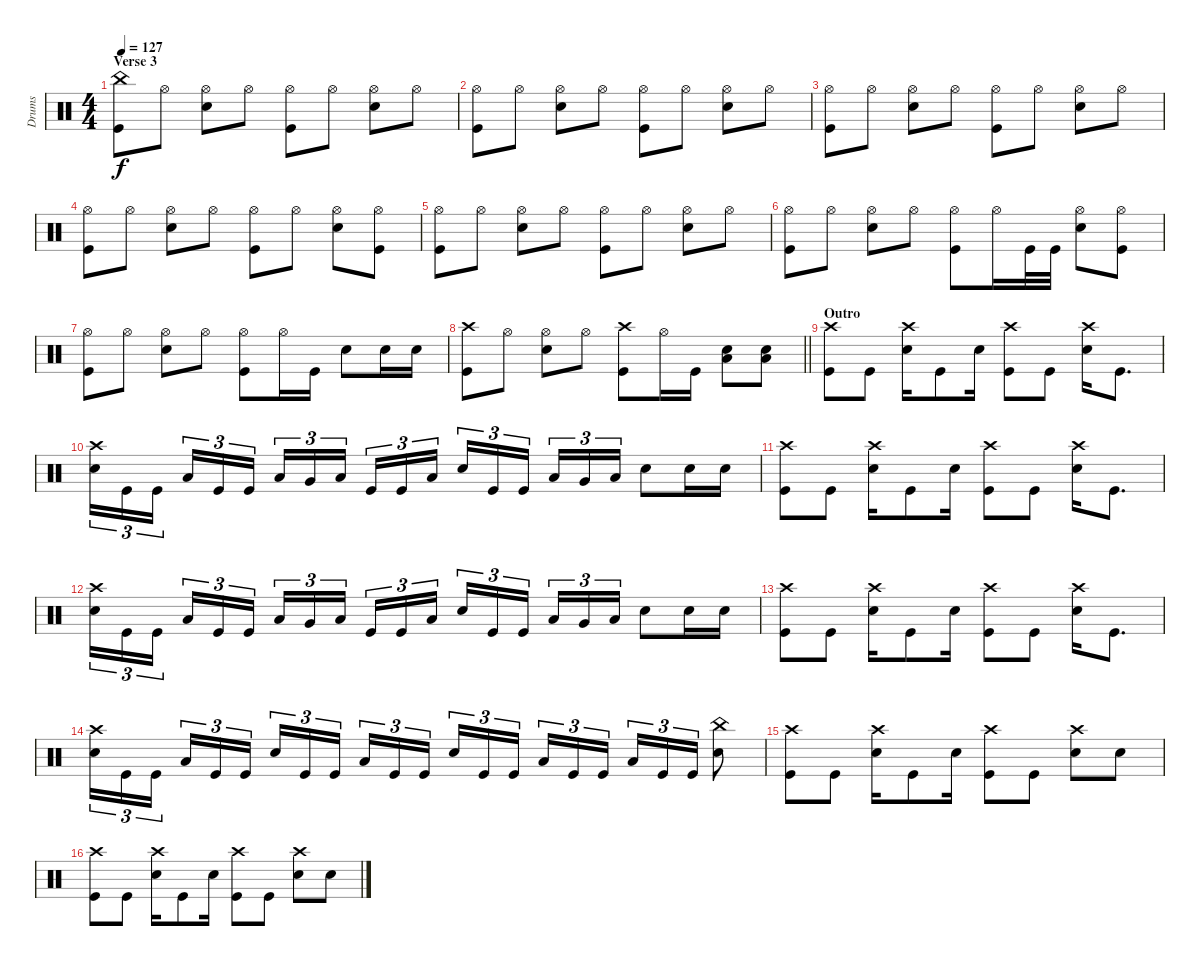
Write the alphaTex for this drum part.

\track ("Drums" "Drums") {instrument percussion}
\staff {score}
\articulation defaults
\ts (4 4)
\section ("" "Verse 3")
\tempo 127
\clef neutral
\ks c
("China (hit)" "Kick (hit)").8{dy f} "Hi-Hat (open)".8 ("Snare (hit) 2" "Hi-Hat (open)").8 "Hi-Hat (open)".8 ("Kick (hit)" "Hi-Hat (open)").8 "Hi-Hat (open)".8 ("Snare (hit) 2" "Hi-Hat (open)").8 "Hi-Hat (open)".8 |
("Kick (hit)" "Hi-Hat (open)").8 "Hi-Hat (open)".8 ("Snare (hit) 2" "Hi-Hat (open)").8 "Hi-Hat (open)".8 ("Kick (hit)" "Hi-Hat (open)").8 "Hi-Hat (open)".8 ("Snare (hit) 2" "Hi-Hat (open)").8 "Hi-Hat (open)".8 |
("Kick (hit)" "Hi-Hat (open)").8 "Hi-Hat (open)".8 ("Snare (hit) 2" "Hi-Hat (open)").8 "Hi-Hat (open)".8 ("Kick (hit)" "Hi-Hat (open)").8 "Hi-Hat (open)".8 ("Snare (hit) 2" "Hi-Hat (open)").8 "Hi-Hat (open)".8 |
("Kick (hit)" "Hi-Hat (open)").8 "Hi-Hat (open)".8 ("Snare (hit) 2" "Hi-Hat (open)").8 "Hi-Hat (open)".8 ("Kick (hit)" "Hi-Hat (open)").8 "Hi-Hat (open)".8 ("Snare (hit) 2" "Hi-Hat (open)").8 ("Hi-Hat (open)" "Kick (hit)").8 |
("Kick (hit)" "Hi-Hat (open)").8 "Hi-Hat (open)".8 ("Snare (hit) 2" "Hi-Hat (open)").8 "Hi-Hat (open)".8 ("Kick (hit)" "Hi-Hat (open)").8 "Hi-Hat (open)".8 ("Snare (hit) 2" "Hi-Hat (open)").8 "Hi-Hat (open)".8 |
("Kick (hit)" "Hi-Hat (open)").8 "Hi-Hat (open)".8 ("Snare (hit) 2" "Hi-Hat (open)").8 "Hi-Hat (open)".8 ("Kick (hit)" "Hi-Hat (open)").8 "Hi-Hat (open)".16 "Kick (hit)".32 "Kick (hit)".32 ("Snare (hit) 2" "Hi-Hat (open)").8 ("Hi-Hat (open)" "Kick (hit)").8 |
("Kick (hit)" "Hi-Hat (open)").8 "Hi-Hat (open)".8 ("Snare (hit) 2" "Hi-Hat (open)").8 "Hi-Hat (open)".8 ("Kick (hit)" "Hi-Hat (open)").8 "Hi-Hat (open)".16 "Kick (hit)".16 "Snare (hit) 2".8 "Snare (hit) 2".16 "Snare (hit) 2".16 |
\barLineRight lightlight
("Kick (hit)" "Crash high (hit)").8 "Hi-Hat (open)".8 ("Snare (hit) 2" "Hi-Hat (open)").8 "Hi-Hat (open)".8 ("Kick (hit)" "Crash high (hit)").8 "Hi-Hat (open)".16 "Kick (hit)".16 ("Snare (hit) 2" "Low Tom (hit)").8 ("Snare (hit) 2" "Low Tom (hit)").8 |
\section ("" "Outro")
("Kick (hit)" "Crash high (hit)").8 "Kick (hit)".8 ("Snare (hit) 2" "Crash high (hit)").16 "Kick (hit)".8 "Snare (hit) 2".16 ("Kick (hit)" "Crash high (hit)").8 "Kick (hit)".8 ("Snare (hit) 2" "Crash high (hit)").16 "Kick (hit)".8{d} |
("Snare (hit) 2" "Crash high (hit)").16{tu (3 2)} "Kick (hit)".16{tu (3 2)} "Kick (hit)".16{tu (3 2) beam splitsecondary} "Low Tom (hit)".16{tu (3 2)} "Kick (hit)".16{tu (3 2)} "Kick (hit)".16{tu (3 2)} "Low Tom (hit)".16{tu (3 2)} "Very Low Tom (hit)".16{tu (3 2)} "Low Floor Tom (hit)".16{tu (3 2) beam splitsecondary} "Kick (hit)".16{tu (3 2)} "Kick (hit)".16{tu (3 2)} "Low Tom (hit)".16{tu (3 2)} "Snare (hit) 2".16{tu (3 2)} "Kick (hit)".16{tu (3 2)} "Kick (hit)".16{tu (3 2) beam splitsecondary} "Low Tom (hit)".16{tu (3 2)} "Very Low Tom (hit)".16{tu (3 2)} "Low Floor Tom (hit)".16{tu (3 2)} "Snare (hit) 2".8 "Snare (hit) 2".16 "Snare (hit) 2".16 |
("Kick (hit)" "Crash high (hit)").8 "Kick (hit)".8 ("Snare (hit) 2" "Crash high (hit)").16 "Kick (hit)".8 "Snare (hit) 2".16 ("Kick (hit)" "Crash high (hit)").8 "Kick (hit)".8 ("Snare (hit) 2" "Crash high (hit)").16 "Kick (hit)".8{d} |
("Snare (hit) 2" "Crash high (hit)").16{tu (3 2)} "Kick (hit)".16{tu (3 2)} "Kick (hit)".16{tu (3 2) beam splitsecondary} "Low Tom (hit)".16{tu (3 2)} "Kick (hit)".16{tu (3 2)} "Kick (hit)".16{tu (3 2)} "Low Tom (hit)".16{tu (3 2)} "Very Low Tom (hit)".16{tu (3 2)} "Low Floor Tom (hit)".16{tu (3 2) beam splitsecondary} "Kick (hit)".16{tu (3 2)} "Kick (hit)".16{tu (3 2)} "Low Tom (hit)".16{tu (3 2)} "Snare (hit) 2".16{tu (3 2)} "Kick (hit)".16{tu (3 2)} "Kick (hit)".16{tu (3 2) beam splitsecondary} "Low Tom (hit)".16{tu (3 2)} "Very Low Tom (hit)".16{tu (3 2)} "Low Floor Tom (hit)".16{tu (3 2)} "Snare (hit) 2".8 "Snare (hit) 2".16 "Snare (hit) 2".16 |
("Kick (hit)" "Crash high (hit)").8 "Kick (hit)".8 ("Snare (hit) 2" "Crash high (hit)").16 "Kick (hit)".8 "Snare (hit) 2".16 ("Kick (hit)" "Crash high (hit)").8 "Kick (hit)".8 ("Snare (hit) 2" "Crash high (hit)").16 "Kick (hit)".8{d} |
("Snare (hit) 2" "Crash high (hit)").16{tu (3 2)} "Kick (hit)".16{tu (3 2)} "Kick (hit)".16{tu (3 2) beam splitsecondary} "Low Tom (hit)".16{tu (3 2)} "Kick (hit)".16{tu (3 2)} "Kick (hit)".16{tu (3 2)} "Snare (hit) 2".16{tu (3 2)} "Kick (hit)".16{tu (3 2)} "Kick (hit)".16{tu (3 2) beam splitsecondary} "Low Tom (hit)".16{tu (3 2)} "Kick (hit)".16{tu (3 2)} "Kick (hit)".16{tu (3 2)} "Snare (hit) 2".16{tu (3 2)} "Kick (hit)".16{tu (3 2)} "Kick (hit)".16{tu (3 2) beam splitsecondary} "Low Tom (hit)".16{tu (3 2)} "Kick (hit)".16{tu (3 2)} "Kick (hit)".16{tu (3 2)} "Low Floor Tom (hit)".16{tu (3 2)} "Kick (hit)".16{tu (3 2)} "Kick (hit)".16{tu (3 2)} ("Snare (hit) 2" "China (hit)").8 |
("Kick (hit)" "Crash high (hit)").8 "Kick (hit)".8 ("Snare (hit) 2" "Crash high (hit)").16 "Kick (hit)".8 "Snare (hit) 2".16 ("Kick (hit)" "Crash high (hit)").8 "Kick (hit)".8 ("Snare (hit) 2" "Crash high (hit)").8 "Snare (hit) 2".8 |
("Kick (hit)" "Crash high (hit)").8 "Kick (hit)".8 ("Snare (hit) 2" "Crash high (hit)").16 "Kick (hit)".8 "Snare (hit) 2".16 ("Kick (hit)" "Crash high (hit)").8 "Kick (hit)".8 ("Snare (hit) 2" "Crash high (hit)").8 "Snare (hit) 2".8
